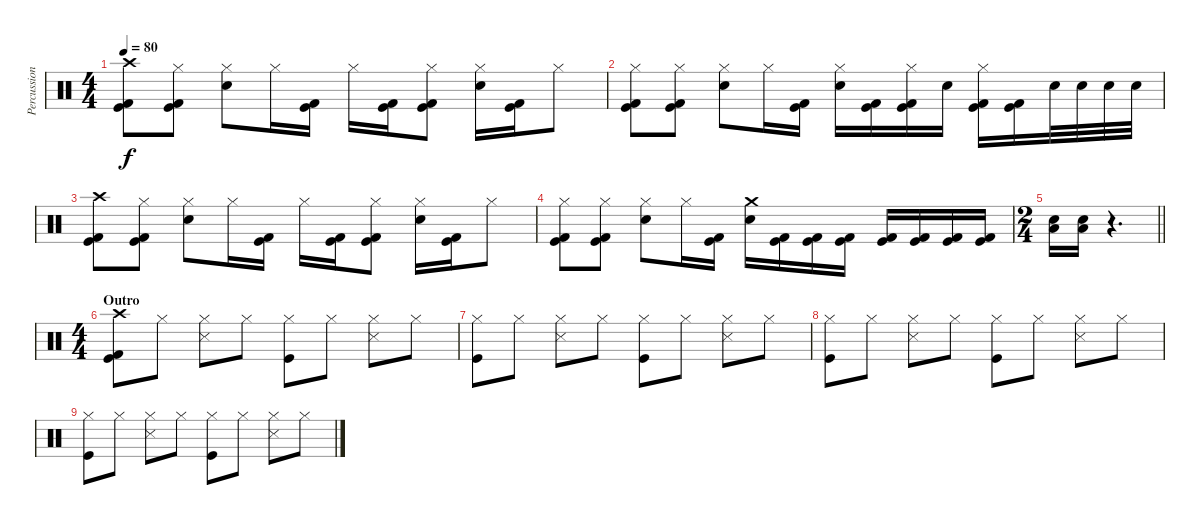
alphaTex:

\track ("Percussion" "Percussion") {instrument percussion}
\staff {score}
\articulation defaults
\ts (4 4)
\tempo 80
\clef neutral
\ks c
("Crash high (hit)" "Kick (hit)" "Kick (hit) 2").8{dy f} ("Hi-Hat (closed)" "Kick (hit)" "Kick (hit) 2").8 ("Hi-Hat (closed)" "Electric Snare (hit)").8 "Hi-Hat (closed)".16 ("Kick (hit)" "Kick (hit) 2").16 "Hi-Hat (closed)".16 ("Kick (hit)" "Kick (hit) 2").16 ("Hi-Hat (closed)" "Kick (hit)" "Kick (hit) 2").8 ("Hi-Hat (closed)" "Electric Snare (hit)").16 ("Kick (hit)" "Kick (hit) 2").16 "Hi-Hat (closed)".8 |
("Hi-Hat (closed)" "Kick (hit)" "Kick (hit) 2").8 ("Hi-Hat (closed)" "Kick (hit)" "Kick (hit) 2").8 ("Hi-Hat (closed)" "Electric Snare (hit)").8 "Hi-Hat (closed)".16 ("Kick (hit)" "Kick (hit) 2").16 ("Hi-Hat (closed)" "Electric Snare (hit)").16 ("Kick (hit)" "Kick (hit) 2").16 ("Hi-Hat (closed)" "Kick (hit)" "Kick (hit) 2").16 "Electric Snare (hit)".16 ("Hi-Hat (closed)" "Kick (hit)" "Kick (hit) 2").16 ("Kick (hit)" "Kick (hit) 2").16 "Electric Snare (hit)".32 "Electric Snare (hit)".32 "Electric Snare (hit)".32 "Electric Snare (hit)".32 |
("Crash high (hit)" "Kick (hit)" "Kick (hit) 2").8 ("Hi-Hat (closed)" "Kick (hit)" "Kick (hit) 2").8 ("Hi-Hat (closed)" "Electric Snare (hit)").8 "Hi-Hat (closed)".16 ("Kick (hit)" "Kick (hit) 2").16 "Hi-Hat (closed)".16 ("Kick (hit)" "Kick (hit) 2").16 ("Hi-Hat (closed)" "Kick (hit)" "Kick (hit) 2").8 ("Hi-Hat (closed)" "Electric Snare (hit)").16 ("Kick (hit)" "Kick (hit) 2").16 "Hi-Hat (closed)".8 |
("Hi-Hat (closed)" "Kick (hit)" "Kick (hit) 2").8 ("Hi-Hat (closed)" "Kick (hit)" "Kick (hit) 2").8 ("Hi-Hat (closed)" "Electric Snare (hit)").8 "Hi-Hat (closed)".16 ("Kick (hit)" "Kick (hit) 2").16 ("Crash medium (hit)" "Electric Snare (hit)").16 ("Kick (hit)" "Kick (hit) 2").16 ("Kick (hit)" "Kick (hit) 2").16 ("Kick (hit)" "Kick (hit) 2").16 ("Kick (hit)" "Kick (hit) 2").16 ("Kick (hit)" "Kick (hit) 2").16 ("Kick (hit)" "Kick (hit) 2").16 ("Kick (hit)" "Kick (hit) 2").16 |
\ts (2 4)
\barLineRight lightlight
("Electric Snare (hit)" "Low Floor Tom (hit)").16 ("Electric Snare (hit)" "Low Floor Tom (hit)").16 r.4{d} |
\ts (4 4)
\section ("" "Outro")
("Crash high (hit)" "Kick (hit)" "Kick (hit) 2").8{volume 0} "Hi-Hat (closed)".8 ("Hi-Hat (closed)" "Snare (side stick) 3").8 "Hi-Hat (closed)".8 ("Hi-Hat (closed)" "Kick (hit)").8 "Hi-Hat (closed)".8 ("Hi-Hat (closed)" "Snare (side stick) 3").8 "Hi-Hat (closed)".8 |
("Hi-Hat (closed)" "Kick (hit)").8 "Hi-Hat (closed)".8 ("Hi-Hat (closed)" "Snare (side stick) 3").8 "Hi-Hat (closed)".8 ("Hi-Hat (closed)" "Kick (hit)").8 "Hi-Hat (closed)".8 ("Hi-Hat (closed)" "Snare (side stick) 3").8 "Hi-Hat (closed)".8 |
("Hi-Hat (closed)" "Kick (hit)").8 "Hi-Hat (closed)".8 ("Hi-Hat (closed)" "Snare (side stick) 3").8 "Hi-Hat (closed)".8 ("Hi-Hat (closed)" "Kick (hit)").8 "Hi-Hat (closed)".8 ("Hi-Hat (closed)" "Snare (side stick) 3").8 "Hi-Hat (closed)".8 |
("Hi-Hat (closed)" "Kick (hit)").8 "Hi-Hat (closed)".8 ("Hi-Hat (closed)" "Snare (side stick) 3").8 "Hi-Hat (closed)".8 ("Hi-Hat (closed)" "Kick (hit)").8 "Hi-Hat (closed)".8 ("Hi-Hat (closed)" "Snare (side stick) 3").8 "Hi-Hat (closed)".8
